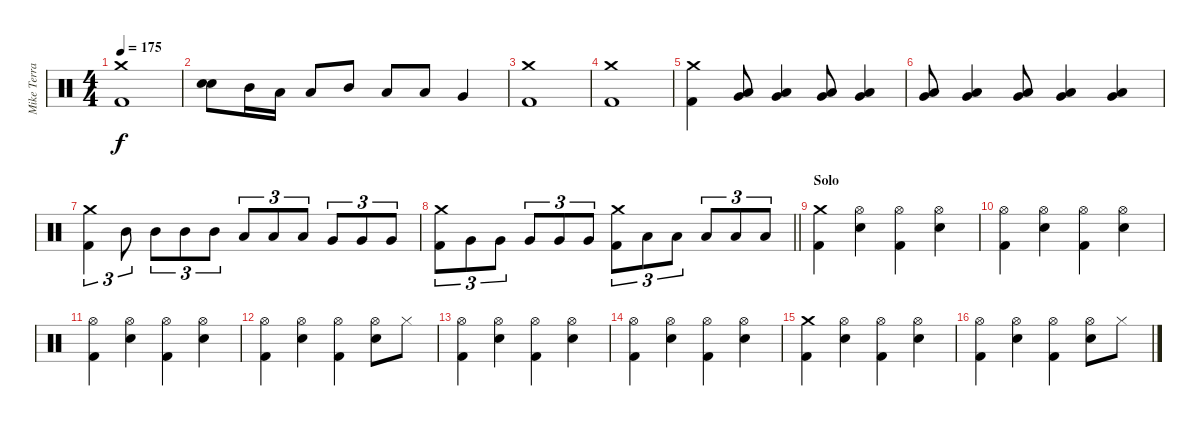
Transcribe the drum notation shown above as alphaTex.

\track ("Mike Terrana" "Mike Terra") {instrument percussion}
\staff {score}
\articulation defaults
\ts (4 4)
\tempo 175
\clef neutral
\ks c
("Crash medium (hit)" "Kick (hit) 2").1{dy f} |
("Snare (hit) 2" "Electric Snare (hit)").8 "Mid Tom (hit)".16 "Low Tom (hit)".16 "Low Tom (hit)".8 "Mid Tom (hit)".8 "Low Tom (hit)".8 "Low Tom (hit)".8 "Very Low Tom (hit)".4 |
("Crash medium (hit)" "Kick (hit) 2").1 |
("Crash medium (hit)" "Kick (hit) 2").1 |
("Crash medium (hit)" "Kick (hit) 2").4 ("Low Tom (hit)" "Very Low Tom (hit)").8 ("Low Tom (hit)" "Very Low Tom (hit)").4 ("Low Tom (hit)" "Very Low Tom (hit)").8 ("Low Tom (hit)" "Very Low Tom (hit)").4 |
("Low Tom (hit)" "Very Low Tom (hit)").8 ("Low Tom (hit)" "Very Low Tom (hit)").4 ("Low Tom (hit)" "Very Low Tom (hit)").8 ("Low Tom (hit)" "Very Low Tom (hit)").4 ("Low Tom (hit)" "Very Low Tom (hit)").4 |
("Crash medium (hit)" "Kick (hit) 2").4{tu (3 2)} "Mid Tom (hit)".8{tu (3 2)} "Mid Tom (hit)".8{tu (3 2)} "Mid Tom (hit)".8{tu (3 2)} "Mid Tom (hit)".8{tu (3 2)} "Low Tom (hit)".8{tu (3 2)} "Low Tom (hit)".8{tu (3 2)} "Low Tom (hit)".8{tu (3 2)} "Very Low Tom (hit)".8{tu (3 2)} "Very Low Tom (hit)".8{tu (3 2)} "Very Low Tom (hit)".8{tu (3 2)} |
\barLineRight lightlight
("Crash medium (hit)" "Kick (hit) 2").8{tu (3 2)} "Very Low Tom (hit)".8{tu (3 2)} "Very Low Tom (hit)".8{tu (3 2)} "Very Low Tom (hit)".8{tu (3 2)} "Very Low Tom (hit)".8{tu (3 2)} "Very Low Tom (hit)".8{tu (3 2)} ("Crash medium (hit)" "Kick (hit) 2").8{tu (3 2)} "Low Floor Tom (hit)".8{tu (3 2)} "Low Floor Tom (hit)".8{tu (3 2)} "Low Floor Tom (hit)".8{tu (3 2)} "Low Floor Tom (hit)".8{tu (3 2)} "Low Floor Tom (hit)".8{tu (3 2)} |
\section ("" "Solo")
("Crash medium (hit)" "Kick (hit) 2").4 ("Hi-Hat (open)" "Snare (hit) 2").4 ("Hi-Hat (open)" "Kick (hit) 2").4 ("Hi-Hat (open)" "Snare (hit) 2").4 |
("Hi-Hat (open)" "Kick (hit) 2").4 ("Hi-Hat (open)" "Snare (hit) 2").4 ("Hi-Hat (open)" "Kick (hit) 2").4 ("Hi-Hat (open)" "Snare (hit) 2").4 |
("Hi-Hat (open)" "Kick (hit) 2").4 ("Hi-Hat (open)" "Snare (hit) 2").4 ("Hi-Hat (open)" "Kick (hit) 2").4 ("Hi-Hat (open)" "Snare (hit) 2").4 |
("Hi-Hat (open)" "Kick (hit) 2").4 ("Hi-Hat (open)" "Snare (hit) 2").4 ("Hi-Hat (open)" "Kick (hit) 2").4 ("Hi-Hat (open)" "Snare (hit) 2").8 "Hi-Hat (closed)".8 |
("Hi-Hat (open)" "Kick (hit) 2").4 ("Hi-Hat (open)" "Snare (hit) 2").4 ("Hi-Hat (open)" "Kick (hit) 2").4 ("Hi-Hat (open)" "Snare (hit) 2").4 |
("Hi-Hat (open)" "Kick (hit) 2").4 ("Hi-Hat (open)" "Snare (hit) 2").4 ("Hi-Hat (open)" "Kick (hit) 2").4 ("Hi-Hat (open)" "Snare (hit) 2").4 |
("Crash medium (hit)" "Kick (hit) 2").4 ("Hi-Hat (open)" "Snare (hit) 2").4 ("Hi-Hat (open)" "Kick (hit) 2").4 ("Hi-Hat (open)" "Snare (hit) 2").4 |
("Hi-Hat (open)" "Kick (hit) 2").4 ("Hi-Hat (open)" "Snare (hit) 2").4 ("Hi-Hat (open)" "Kick (hit) 2").4 ("Hi-Hat (open)" "Snare (hit) 2").8 "Hi-Hat (closed)".8
